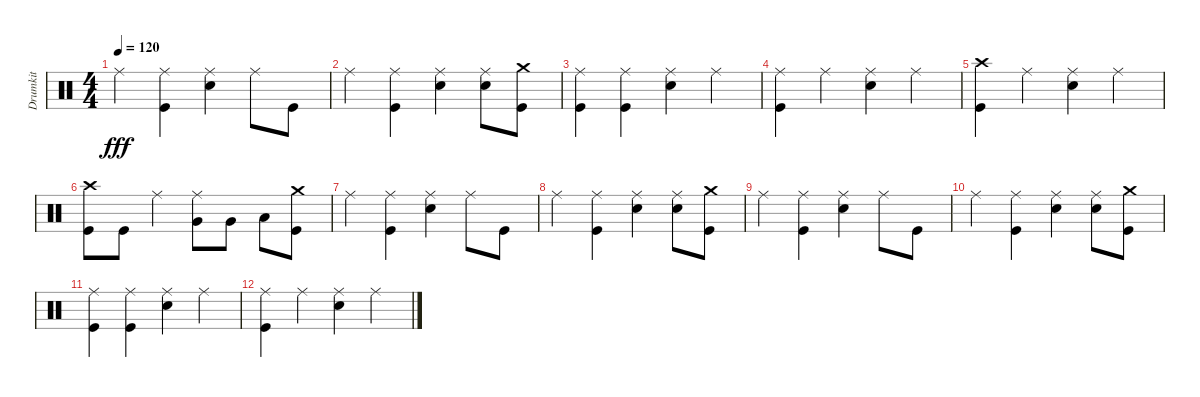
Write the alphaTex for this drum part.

\track ("Drumkit" "Drumkit") {instrument percussion}
\staff {score}
\articulation defaults
\ts (4 4)
\tempo 120
\clef neutral
\ks c "Ride (middle)".4{dy fff}
("Ride (middle)" "Kick (hit)").4 ("Ride (middle)" "Snare (hit) 2").4 "Ride (middle)".8 "Kick (hit)".8 |
"Ride (middle)".4 ("Ride (middle)" "Kick (hit)").4 ("Ride (middle)" "Snare (hit) 2").4 ("Ride (middle)" "Snare (hit) 2").8 ("Kick (hit)" "Crash medium (hit)").8 |
("Ride (middle)" "Kick (hit)").4 ("Ride (middle)" "Kick (hit)").4 ("Ride (middle)" "Snare (hit) 2").4 "Ride (middle)".4 |
("Ride (middle)" "Kick (hit)").4 "Ride (middle)".4 ("Ride (middle)" "Snare (hit) 2").4 "Ride (middle)".4 |
("Kick (hit)" "Crash high (hit)").4 "Ride (middle)".4 ("Ride (middle)" "Snare (hit) 2").4 "Ride (middle)".4 |
("Kick (hit)" "Crash high (hit)").8 "Kick (hit)".8 "Ride (middle)".4 ("Ride (middle)" "Very Low Tom (hit)").8 "Very Low Tom (hit)".8 "Low Tom (hit)".8 ("Crash medium (hit)" "Kick (hit)").8 |
"Ride (middle)".4 ("Ride (middle)" "Kick (hit)").4 ("Ride (middle)" "Snare (hit) 2").4 "Ride (middle)".8 "Kick (hit)".8 |
"Ride (middle)".4 ("Ride (middle)" "Kick (hit)").4 ("Ride (middle)" "Snare (hit) 2").4 ("Ride (middle)" "Snare (hit) 2").8 ("Kick (hit)" "Crash medium (hit)").8 |
"Ride (middle)".4 ("Ride (middle)" "Kick (hit)").4 ("Ride (middle)" "Snare (hit) 2").4 "Ride (middle)".8 "Kick (hit)".8 |
"Ride (middle)".4 ("Ride (middle)" "Kick (hit)").4 ("Ride (middle)" "Snare (hit) 2").4 ("Ride (middle)" "Snare (hit) 2").8 ("Kick (hit)" "Crash medium (hit)").8 |
("Ride (middle)" "Kick (hit)").4 ("Ride (middle)" "Kick (hit)").4 ("Ride (middle)" "Snare (hit) 2").4 "Ride (middle)".4 |
("Ride (middle)" "Kick (hit)").4 "Ride (middle)".4 ("Ride (middle)" "Snare (hit) 2").4 "Ride (middle)".4
